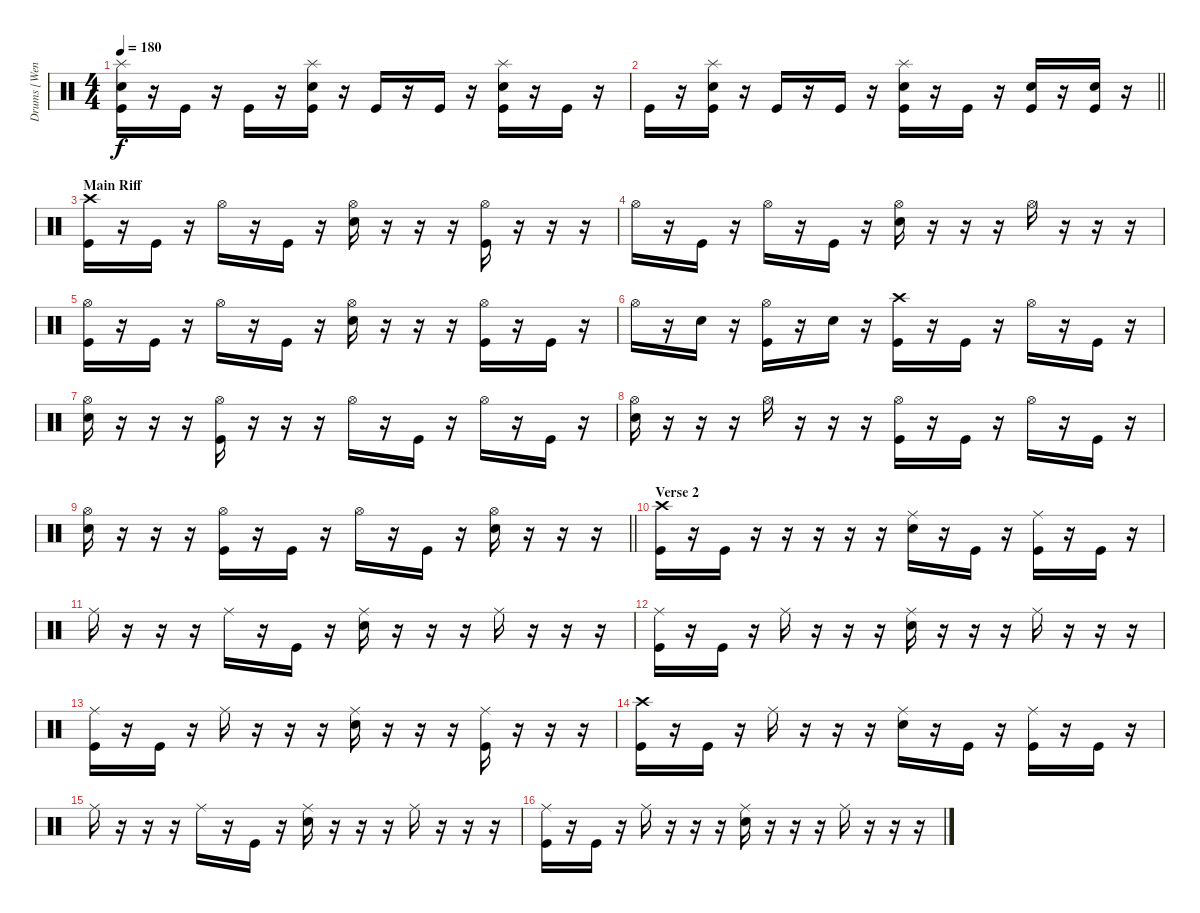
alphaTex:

\track ("Drums [Wengren]" "Drums [Wen") {instrument percussion}
\staff {score}
\articulation defaults
\ts (4 4)
\tempo 180
\clef neutral
\ks c
("Splash (hit)" "Electric Snare (hit)" "Kick (hit)").16{dy f} r.16 "Kick (hit)".16 r.16 "Kick (hit)".16 r.16 ("Splash (hit)" "Electric Snare (hit)" "Kick (hit)").16 r.16 "Kick (hit)".16 r.16 "Kick (hit)".16 r.16 ("Splash (hit)" "Electric Snare (hit)" "Kick (hit)").16 r.16 "Kick (hit)".16 r.16 |
\barLineRight lightlight "Kick (hit)".16
r.16 ("Splash (hit)" "Electric Snare (hit)" "Kick (hit)").16 r.16 "Kick (hit)".16 r.16 "Kick (hit)".16 r.16 ("Splash (hit)" "Electric Snare (hit)" "Kick (hit)").16 r.16 "Kick (hit)".16 r.16 ("Electric Snare (hit)" "Kick (hit)").16 r.16 ("Electric Snare (hit)" "Kick (hit)").16 r.16 |
\section ("" "Main Riff")
("Crash high (hit)" "Kick (hit)").16 r.16 "Kick (hit)".16 r.16 "Hi-Hat (open)".16 r.16 "Kick (hit)".16 r.16 ("Hi-Hat (open)" "Electric Snare (hit)").16 r.16 r.16 r.16 ("Hi-Hat (open)" "Kick (hit)").16 r.16 r.16 r.16 |
"Hi-Hat (open)".16 r.16 "Kick (hit)".16 r.16 "Hi-Hat (open)".16 r.16 "Kick (hit)".16 r.16 ("Hi-Hat (open)" "Electric Snare (hit)").16 r.16 r.16 r.16 "Hi-Hat (open)".16 r.16 r.16 r.16 |
("Hi-Hat (open)" "Kick (hit)").16 r.16 "Kick (hit)".16 r.16 "Hi-Hat (open)".16 r.16 "Kick (hit)".16 r.16 ("Hi-Hat (open)" "Electric Snare (hit)").16 r.16 r.16 r.16 ("Hi-Hat (open)" "Kick (hit)").16 r.16 "Kick (hit)".16 r.16 |
"Hi-Hat (open)".16 r.16 "Electric Snare (hit)".16 r.16 ("Hi-Hat (open)" "Kick (hit)").16 r.16 "Electric Snare (hit)".16 r.16 ("Crash high (hit)" "Kick (hit)").16 r.16 "Kick (hit)".16 r.16 "Hi-Hat (open)".16 r.16 "Kick (hit)".16 r.16 |
("Hi-Hat (open)" "Electric Snare (hit)").16 r.16 r.16 r.16 ("Hi-Hat (open)" "Kick (hit)").16 r.16 r.16 r.16 "Hi-Hat (open)".16 r.16 "Kick (hit)".16 r.16 "Hi-Hat (open)".16 r.16 "Kick (hit)".16 r.16 |
("Hi-Hat (open)" "Electric Snare (hit)").16 r.16 r.16 r.16 "Hi-Hat (open)".16 r.16 r.16 r.16 ("Hi-Hat (open)" "Kick (hit)").16 r.16 "Kick (hit)".16 r.16 "Hi-Hat (open)".16 r.16 "Kick (hit)".16 r.16 |
\barLineRight lightlight
("Hi-Hat (open)" "Electric Snare (hit)").16 r.16 r.16 r.16 ("Hi-Hat (open)" "Kick (hit)").16 r.16 "Kick (hit)".16 r.16 "Hi-Hat (open)".16 r.16 "Kick (hit)".16 r.16 ("Hi-Hat (open)" "Electric Snare (hit)").16 r.16 r.16 r.16 |
\section ("" "Verse 2")
("Crash high (hit)" "Kick (hit)").16 r.16 "Kick (hit)".16 r.16 r.16 r.16 r.16 r.16 ("Ride (middle)" "Electric Snare (hit)").16 r.16 "Kick (hit)".16 r.16 ("Ride (middle)" "Kick (hit)").16 r.16 "Kick (hit)".16 r.16 |
"Ride (middle)".16 r.16 r.16 r.16 "Ride (middle)".16 r.16 "Kick (hit)".16 r.16 ("Ride (middle)" "Electric Snare (hit)").16 r.16 r.16 r.16 "Ride (middle)".16 r.16 r.16 r.16 |
("Ride (middle)" "Kick (hit)").16 r.16 "Kick (hit)".16 r.16 "Ride (middle)".16 r.16 r.16 r.16 ("Ride (middle)" "Electric Snare (hit)").16 r.16 r.16 r.16 "Ride (middle)".16 r.16 r.16 r.16 |
("Ride (middle)" "Kick (hit)").16 r.16 "Kick (hit)".16 r.16 "Ride (middle)".16 r.16 r.16 r.16 ("Ride (middle)" "Electric Snare (hit)").16 r.16 r.16 r.16 ("Ride (middle)" "Kick (hit)").16 r.16 r.16 r.16 |
("Crash high (hit)" "Kick (hit)").16 r.16 "Kick (hit)".16 r.16 "Ride (middle)".16 r.16 r.16 r.16 ("Ride (middle)" "Electric Snare (hit)").16 r.16 "Kick (hit)".16 r.16 ("Ride (middle)" "Kick (hit)").16 r.16 "Kick (hit)".16 r.16 |
"Ride (middle)".16 r.16 r.16 r.16 "Ride (middle)".16 r.16 "Kick (hit)".16 r.16 ("Ride (middle)" "Electric Snare (hit)").16 r.16 r.16 r.16 "Ride (middle)".16 r.16 r.16 r.16 |
("Ride (middle)" "Kick (hit)").16 r.16 "Kick (hit)".16 r.16 "Ride (middle)".16 r.16 r.16 r.16 ("Ride (middle)" "Electric Snare (hit)").16 r.16 r.16 r.16 "Ride (middle)".16 r.16 r.16 r.16
